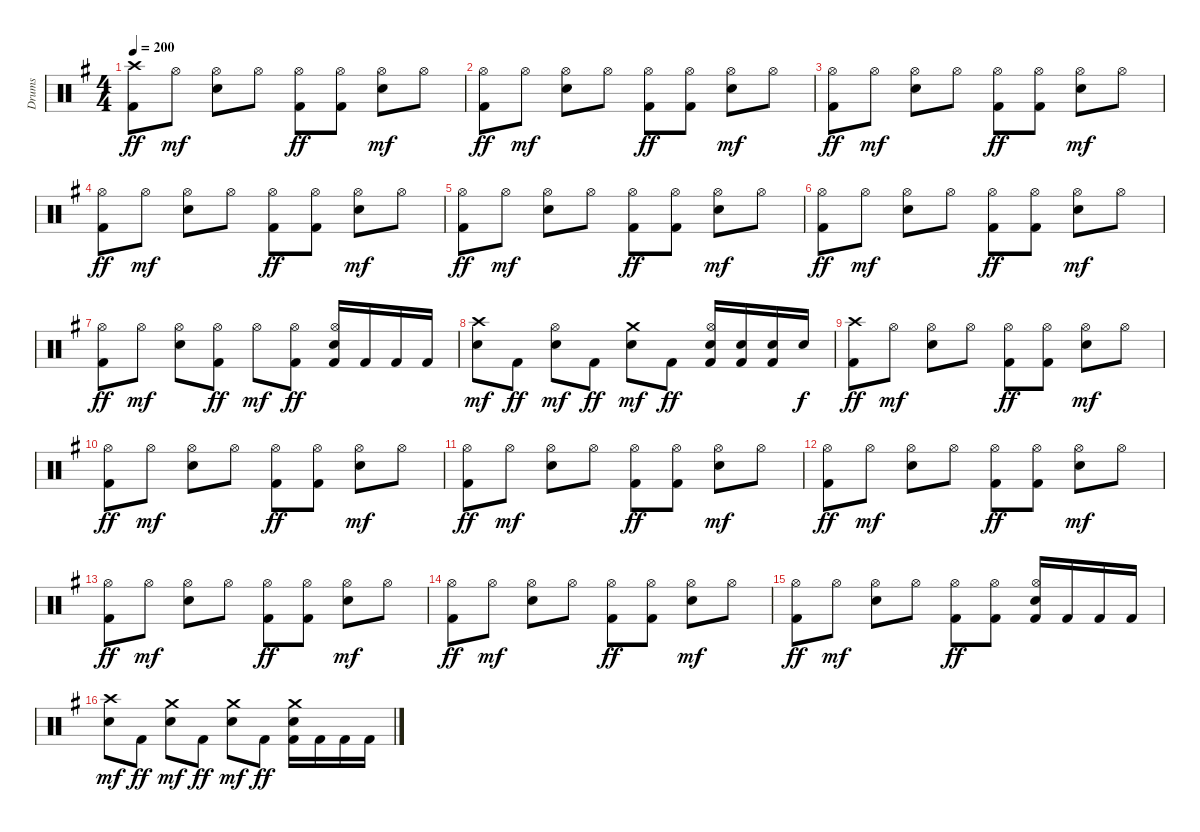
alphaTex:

\track ("Drums" "Drums") {instrument percussion}
\staff {score}
\articulation defaults
\ts (4 4)
\tempo 200
\clef neutral
\ks g
("Crash high (hit)" "Kick (hit) 2").8{dy ff} "Hi-Hat (open)".8{dy mf} ("Hi-Hat (open)" "Snare (hit) 2").8 "Hi-Hat (open)".8 ("Hi-Hat (open)" "Kick (hit) 2").8{dy ff} ("Hi-Hat (open)" "Kick (hit) 2").8 ("Hi-Hat (open)" "Snare (hit) 2").8{dy mf} "Hi-Hat (open)".8 |
("Hi-Hat (open)" "Kick (hit) 2").8{dy ff} "Hi-Hat (open)".8{dy mf} ("Hi-Hat (open)" "Snare (hit) 2").8 "Hi-Hat (open)".8 ("Hi-Hat (open)" "Kick (hit) 2").8{dy ff} ("Hi-Hat (open)" "Kick (hit) 2").8 ("Hi-Hat (open)" "Snare (hit) 2").8{dy mf} "Hi-Hat (open)".8 |
("Hi-Hat (open)" "Kick (hit) 2").8{dy ff} "Hi-Hat (open)".8{dy mf} ("Hi-Hat (open)" "Snare (hit) 2").8 "Hi-Hat (open)".8 ("Hi-Hat (open)" "Kick (hit) 2").8{dy ff} ("Hi-Hat (open)" "Kick (hit) 2").8 ("Hi-Hat (open)" "Snare (hit) 2").8{dy mf} "Hi-Hat (open)".8 |
("Hi-Hat (open)" "Kick (hit) 2").8{dy ff} "Hi-Hat (open)".8{dy mf} ("Hi-Hat (open)" "Snare (hit) 2").8 "Hi-Hat (open)".8 ("Hi-Hat (open)" "Kick (hit) 2").8{dy ff} ("Hi-Hat (open)" "Kick (hit) 2").8 ("Hi-Hat (open)" "Snare (hit) 2").8{dy mf} "Hi-Hat (open)".8 |
("Hi-Hat (open)" "Kick (hit) 2").8{dy ff} "Hi-Hat (open)".8{dy mf} ("Hi-Hat (open)" "Snare (hit) 2").8 "Hi-Hat (open)".8 ("Hi-Hat (open)" "Kick (hit) 2").8{dy ff} ("Hi-Hat (open)" "Kick (hit) 2").8 ("Hi-Hat (open)" "Snare (hit) 2").8{dy mf} "Hi-Hat (open)".8 |
("Hi-Hat (open)" "Kick (hit) 2").8{dy ff} "Hi-Hat (open)".8{dy mf} ("Hi-Hat (open)" "Snare (hit) 2").8 "Hi-Hat (open)".8 ("Hi-Hat (open)" "Kick (hit) 2").8{dy ff} ("Hi-Hat (open)" "Kick (hit) 2").8 ("Hi-Hat (open)" "Snare (hit) 2").8{dy mf} "Hi-Hat (open)".8 |
("Hi-Hat (open)" "Kick (hit) 2").8{dy ff} "Hi-Hat (open)".8{dy mf} ("Hi-Hat (open)" "Snare (hit) 2").8 ("Hi-Hat (open)" "Kick (hit) 2").8{dy ff} "Hi-Hat (open)".8{dy mf} ("Hi-Hat (open)" "Kick (hit) 2").8{dy ff} ("Hi-Hat (open)" "Snare (hit) 2" "Kick (hit) 2").16 "Kick (hit) 2".16 "Kick (hit) 2".16 "Kick (hit) 2".16 |
("Crash high (hit)" "Snare (hit) 2").8{dy mf} "Kick (hit) 2".8{dy ff} ("Hi-Hat (open)" "Snare (hit) 2").8{dy mf} "Kick (hit) 2".8{dy ff} ("Crash medium (hit)" "Snare (hit) 2").8{dy mf} "Kick (hit) 2".8{dy ff} ("Hi-Hat (open)" "Snare (hit) 2" "Kick (hit) 2").16 ("Snare (hit) 2" "Kick (hit) 2").16 ("Snare (hit) 2" "Kick (hit) 2").16 "Snare (hit) 2".16{dy f} |
("Crash high (hit)" "Kick (hit) 2").8{dy ff} "Hi-Hat (open)".8{dy mf} ("Hi-Hat (open)" "Snare (hit) 2").8 "Hi-Hat (open)".8 ("Hi-Hat (open)" "Kick (hit) 2").8{dy ff} ("Hi-Hat (open)" "Kick (hit) 2").8 ("Hi-Hat (open)" "Snare (hit) 2").8{dy mf} "Hi-Hat (open)".8 |
("Hi-Hat (open)" "Kick (hit) 2").8{dy ff} "Hi-Hat (open)".8{dy mf} ("Hi-Hat (open)" "Snare (hit) 2").8 "Hi-Hat (open)".8 ("Hi-Hat (open)" "Kick (hit) 2").8{dy ff} ("Hi-Hat (open)" "Kick (hit) 2").8 ("Hi-Hat (open)" "Snare (hit) 2").8{dy mf} "Hi-Hat (open)".8 |
("Hi-Hat (open)" "Kick (hit) 2").8{dy ff} "Hi-Hat (open)".8{dy mf} ("Hi-Hat (open)" "Snare (hit) 2").8 "Hi-Hat (open)".8 ("Hi-Hat (open)" "Kick (hit) 2").8{dy ff} ("Hi-Hat (open)" "Kick (hit) 2").8 ("Hi-Hat (open)" "Snare (hit) 2").8{dy mf} "Hi-Hat (open)".8 |
("Hi-Hat (open)" "Kick (hit) 2").8{dy ff} "Hi-Hat (open)".8{dy mf} ("Hi-Hat (open)" "Snare (hit) 2").8 "Hi-Hat (open)".8 ("Hi-Hat (open)" "Kick (hit) 2").8{dy ff} ("Hi-Hat (open)" "Kick (hit) 2").8 ("Hi-Hat (open)" "Snare (hit) 2").8{dy mf} "Hi-Hat (open)".8 |
("Hi-Hat (open)" "Kick (hit) 2").8{dy ff} "Hi-Hat (open)".8{dy mf} ("Hi-Hat (open)" "Snare (hit) 2").8 "Hi-Hat (open)".8 ("Hi-Hat (open)" "Kick (hit) 2").8{dy ff} ("Hi-Hat (open)" "Kick (hit) 2").8 ("Hi-Hat (open)" "Snare (hit) 2").8{dy mf} "Hi-Hat (open)".8 |
("Hi-Hat (open)" "Kick (hit) 2").8{dy ff} "Hi-Hat (open)".8{dy mf} ("Hi-Hat (open)" "Snare (hit) 2").8 "Hi-Hat (open)".8 ("Hi-Hat (open)" "Kick (hit) 2").8{dy ff} ("Hi-Hat (open)" "Kick (hit) 2").8 ("Hi-Hat (open)" "Snare (hit) 2").8{dy mf} "Hi-Hat (open)".8 |
("Hi-Hat (open)" "Kick (hit) 2").8{dy ff} "Hi-Hat (open)".8{dy mf} ("Hi-Hat (open)" "Snare (hit) 2").8 "Hi-Hat (open)".8 ("Hi-Hat (open)" "Kick (hit) 2").8{dy ff} ("Hi-Hat (open)" "Kick (hit) 2").8 ("Hi-Hat (open)" "Snare (hit) 2" "Kick (hit) 2").16 "Kick (hit) 2".16 "Kick (hit) 2".16 "Kick (hit) 2".16 |
("Crash high (hit)" "Snare (hit) 2").8{dy mf} "Kick (hit) 2".8{dy ff} ("Crash medium (hit)" "Snare (hit) 2").8{dy mf} "Kick (hit) 2".8{dy ff} ("Crash medium (hit)" "Snare (hit) 2").8{dy mf} "Kick (hit) 2".8{dy ff} ("Crash medium (hit)" "Snare (hit) 2" "Kick (hit) 2").16 "Kick (hit) 2".16 "Kick (hit) 2".16 "Kick (hit) 2".16
